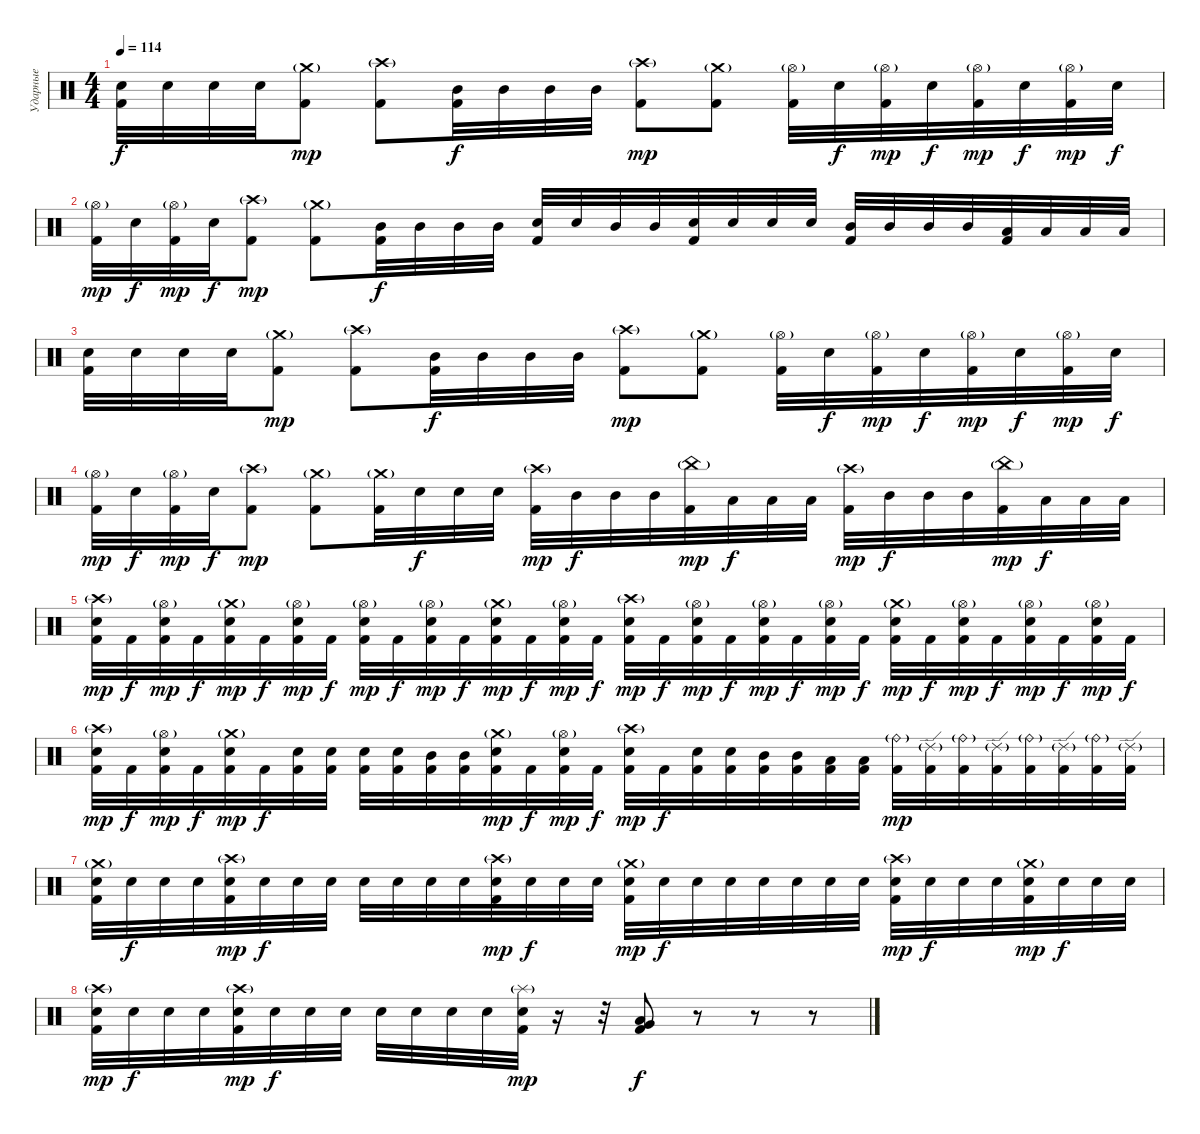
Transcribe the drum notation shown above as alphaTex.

\track ("Ударные" "Ударные") {instrument percussion}
\staff {score}
\articulation defaults
\ts (4 4)
\tempo 114
\clef neutral
\ks c
("Electric Snare (hit)" "Kick (hit) 2").32{dy f} "Electric Snare (hit)".32 "Electric Snare (hit)".32 "Electric Snare (hit)".32 ("Crash medium (hit)"{g} "Kick (hit) 2").8{dy mp} ("Crash high (hit)"{g} "Kick (hit) 2").8 ("Mid Tom (hit)" "Kick (hit) 2").32{dy f} "Mid Tom (hit)".32 "Mid Tom (hit)".32 "Mid Tom (hit)".32 ("Crash high (hit)"{g} "Kick (hit) 2").8{dy mp} ("Crash medium (hit)"{g} "Kick (hit) 2").8 ("Hi-Hat (open)"{g} "Kick (hit) 2").32 "Electric Snare (hit)".32{dy f} ("Hi-Hat (open)"{g} "Kick (hit) 2").32{dy mp} "Electric Snare (hit)".32{dy f} ("Hi-Hat (open)"{g} "Kick (hit) 2").32{dy mp} "Electric Snare (hit)".32{dy f} ("Hi-Hat (open)"{g} "Kick (hit) 2").32{dy mp} "Electric Snare (hit)".32{dy f} |
("Hi-Hat (open)"{g} "Kick (hit) 2").32{dy mp} "Electric Snare (hit)".32{dy f} ("Hi-Hat (open)"{g} "Kick (hit) 2").32{dy mp} "Electric Snare (hit)".32{dy f} ("Crash high (hit)"{g} "Kick (hit) 2").8{dy mp} ("Crash medium (hit)"{g} "Kick (hit) 2").8 ("Mid Tom (hit)" "Kick (hit) 2").32{dy f} "Mid Tom (hit)".32 "Mid Tom (hit)".32 "Mid Tom (hit)".32 ("Electric Snare (hit)" "Kick (hit) 2").32 "Electric Snare (hit)".32 "Mid Tom (hit)".32 "Mid Tom (hit)".32 ("Electric Snare (hit)" "Kick (hit) 2").32 "Electric Snare (hit)".32 "Electric Snare (hit)".32 "Electric Snare (hit)".32 ("Mid Tom (hit)" "Kick (hit) 2").32 "Mid Tom (hit)".32 "Mid Tom (hit)".32 "Mid Tom (hit)".32 ("Low Tom (hit)" "Kick (hit) 2").32 "Low Tom (hit)".32 "Low Tom (hit)".32 "Low Tom (hit)".32 |
("Electric Snare (hit)" "Kick (hit) 2").32 "Electric Snare (hit)".32 "Electric Snare (hit)".32 "Electric Snare (hit)".32 ("Crash medium (hit)"{g} "Kick (hit) 2").8{dy mp} ("Crash high (hit)"{g} "Kick (hit) 2").8 ("Mid Tom (hit)" "Kick (hit) 2").32{dy f} "Mid Tom (hit)".32 "Mid Tom (hit)".32 "Mid Tom (hit)".32 ("Crash high (hit)"{g} "Kick (hit) 2").8{dy mp} ("Crash medium (hit)"{g} "Kick (hit) 2").8 ("Hi-Hat (open)"{g} "Kick (hit) 2").32 "Electric Snare (hit)".32{dy f} ("Hi-Hat (open)"{g} "Kick (hit) 2").32{dy mp} "Electric Snare (hit)".32{dy f} ("Hi-Hat (open)"{g} "Kick (hit) 2").32{dy mp} "Electric Snare (hit)".32{dy f} ("Hi-Hat (open)"{g} "Kick (hit) 2").32{dy mp} "Electric Snare (hit)".32{dy f} |
("Hi-Hat (open)"{g} "Kick (hit) 2").32{dy mp} "Electric Snare (hit)".32{dy f} ("Hi-Hat (open)"{g} "Kick (hit) 2").32{dy mp} "Electric Snare (hit)".32{dy f} ("Crash high (hit)"{g} "Kick (hit) 2").8{dy mp} ("Crash medium (hit)"{g} "Kick (hit) 2").8 ("Crash medium (hit)"{g} "Kick (hit) 2").32 "Electric Snare (hit)".32{dy f} "Electric Snare (hit)".32 "Electric Snare (hit)".32 ("Crash high (hit)"{g} "Kick (hit) 2").32{dy mp} "Mid Tom (hit)".32{dy f} "Mid Tom (hit)".32 "Mid Tom (hit)".32 ("China (hit)"{g} "Kick (hit) 2").32{dy mp} "Low Tom (hit)".32{dy f} "Low Tom (hit)".32 "Low Tom (hit)".32 ("Crash high (hit)"{g} "Kick (hit) 2").32{dy mp} "Mid Tom (hit)".32{dy f} "Mid Tom (hit)".32 "Mid Tom (hit)".32 ("China (hit)"{g} "Kick (hit) 2").32{dy mp} "Low Tom (hit)".32{dy f} "Low Tom (hit)".32 "Low Tom (hit)".32 |
("Crash high (hit)"{g} "Electric Snare (hit)" "Kick (hit) 2").32{dy mp} "Kick (hit) 2".32{dy f} ("Hi-Hat (open)"{g} "Electric Snare (hit)" "Kick (hit) 2").32{dy mp} "Kick (hit) 2".32{dy f} ("Crash medium (hit)"{g} "Electric Snare (hit)" "Kick (hit) 2").32{dy mp} "Kick (hit) 2".32{dy f} ("Hi-Hat (open)"{g} "Electric Snare (hit)" "Kick (hit) 2").32{dy mp} "Kick (hit) 2".32{dy f} ("Hi-Hat (open)"{g} "Electric Snare (hit)" "Kick (hit) 2").32{dy mp} "Kick (hit) 2".32{dy f} ("Hi-Hat (open)"{g} "Electric Snare (hit)" "Kick (hit) 2").32{dy mp} "Kick (hit) 2".32{dy f} ("Crash medium (hit)"{g} "Electric Snare (hit)" "Kick (hit) 2").32{dy mp} "Kick (hit) 2".32{dy f} ("Hi-Hat (open)"{g} "Electric Snare (hit)" "Kick (hit) 2").32{dy mp} "Kick (hit) 2".32{dy f} ("Crash high (hit)"{g} "Electric Snare (hit)" "Kick (hit) 2").32{dy mp} "Kick (hit) 2".32{dy f} ("Hi-Hat (open)"{g} "Electric Snare (hit)" "Kick (hit) 2").32{dy mp} "Kick (hit) 2".32{dy f} ("Hi-Hat (open)"{g} "Electric Snare (hit)" "Kick (hit) 2").32{dy mp} "Kick (hit) 2".32{dy f} ("Hi-Hat (open)"{g} "Electric Snare (hit)" "Kick (hit) 2").32{dy mp} "Kick (hit) 2".32{dy f} ("Crash medium (hit)"{g} "Electric Snare (hit)" "Kick (hit) 2").32{dy mp} "Kick (hit) 2".32{dy f} ("Hi-Hat (open)"{g} "Electric Snare (hit)" "Kick (hit) 2").32{dy mp} "Kick (hit) 2".32{dy f} ("Hi-Hat (open)"{g} "Electric Snare (hit)" "Kick (hit) 2").32{dy mp} "Kick (hit) 2".32{dy f} ("Hi-Hat (open)"{g} "Electric Snare (hit)" "Kick (hit) 2").32{dy mp} "Kick (hit) 2".32{dy f} |
("Crash high (hit)"{g} "Electric Snare (hit)" "Kick (hit) 2").32{dy mp} "Kick (hit) 2".32{dy f} ("Hi-Hat (open)"{g} "Electric Snare (hit)" "Kick (hit) 2").32{dy mp} "Kick (hit) 2".32{dy f} ("Crash medium (hit)"{g} "Electric Snare (hit)" "Kick (hit) 2").32{dy mp} "Kick (hit) 2".32{dy f} ("Electric Snare (hit)" "Kick (hit) 2").32 ("Electric Snare (hit)" "Kick (hit) 2").32 ("Electric Snare (hit)" "Kick (hit) 2").32 ("Electric Snare (hit)" "Kick (hit) 2").32 ("Mid Tom (hit)" "Kick (hit) 2").32 ("Mid Tom (hit)" "Kick (hit) 2").32 ("Crash medium (hit)"{g} "Electric Snare (hit)" "Kick (hit) 2").32{dy mp} "Kick (hit) 2".32{dy f} ("Hi-Hat (open)"{g} "Electric Snare (hit)" "Kick (hit) 2").32{dy mp} "Kick (hit) 2".32{dy f} ("Crash high (hit)"{g} "Electric Snare (hit)" "Kick (hit) 2").32{dy mp} "Kick (hit) 2".32{dy f} ("Electric Snare (hit)" "Kick (hit) 2").32 ("Electric Snare (hit)" "Kick (hit) 2").32 ("Mid Tom (hit)" "Kick (hit) 2").32 ("Mid Tom (hit)" "Kick (hit) 2").32 ("Low Tom (hit)" "Kick (hit) 2").32 ("Low Tom (hit)" "Kick (hit) 2").32 ("Ride (bell)"{g} "Kick (hit) 2").32{dy mp} ("Ride (edge) 2"{g} "Kick (hit) 2").32 ("Ride (bell)"{g} "Kick (hit) 2").32 ("Ride (edge) 2"{g} "Kick (hit) 2").32 ("Ride (bell)"{g} "Kick (hit) 2").32 ("Ride (edge) 2"{g} "Kick (hit) 2").32 ("Ride (bell)"{g} "Kick (hit) 2").32 ("Ride (edge) 2"{g} "Kick (hit) 2").32 |
("Crash medium (hit)"{g} "Electric Snare (hit)" "Kick (hit) 2").32 "Electric Snare (hit)".32{dy f} "Electric Snare (hit)".32 "Electric Snare (hit)".32 ("Crash high (hit)"{g} "Electric Snare (hit)" "Kick (hit) 2").32{dy mp} "Electric Snare (hit)".32{dy f} "Electric Snare (hit)".32 "Electric Snare (hit)".32 "Electric Snare (hit)".32 "Electric Snare (hit)".32 "Electric Snare (hit)".32 "Electric Snare (hit)".32 ("Crash high (hit)"{g} "Electric Snare (hit)" "Kick (hit) 2").32{dy mp} "Electric Snare (hit)".32{dy f} "Electric Snare (hit)".32 "Electric Snare (hit)".32 ("Crash medium (hit)"{g} "Electric Snare (hit)" "Kick (hit) 2").32{dy mp} "Electric Snare (hit)".32{dy f} "Electric Snare (hit)".32 "Electric Snare (hit)".32 "Electric Snare (hit)".32 "Electric Snare (hit)".32 "Electric Snare (hit)".32 "Electric Snare (hit)".32 ("Crash high (hit)"{g} "Electric Snare (hit)" "Kick (hit) 2").32{dy mp} "Electric Snare (hit)".32{dy f} "Electric Snare (hit)".32 "Electric Snare (hit)".32 ("Crash medium (hit)"{g} "Electric Snare (hit)" "Kick (hit) 2").32{dy mp} "Electric Snare (hit)".32{dy f} "Electric Snare (hit)".32 "Electric Snare (hit)".32 |
("Crash high (hit)"{g} "Electric Snare (hit)" "Kick (hit) 2").32{dy mp} "Electric Snare (hit)".32{dy f} "Electric Snare (hit)".32 "Electric Snare (hit)".32 ("Crash high (hit)"{g} "Electric Snare (hit)" "Kick (hit) 2").32{dy mp} "Electric Snare (hit)".32{dy f} "Electric Snare (hit)".32 "Electric Snare (hit)".32 "Electric Snare (hit)".32 "Electric Snare (hit)".32 "Electric Snare (hit)".32 "Electric Snare (hit)".32 ("Splash (hit)"{g} "Electric Snare (hit)" "Kick (hit) 2").32{dy mp} r.16 r.32 ("Very Low Tom (hit)" "Low Tom (hit)" "Kick (hit) 2").8{dy f} r.8 r.8 r.8
